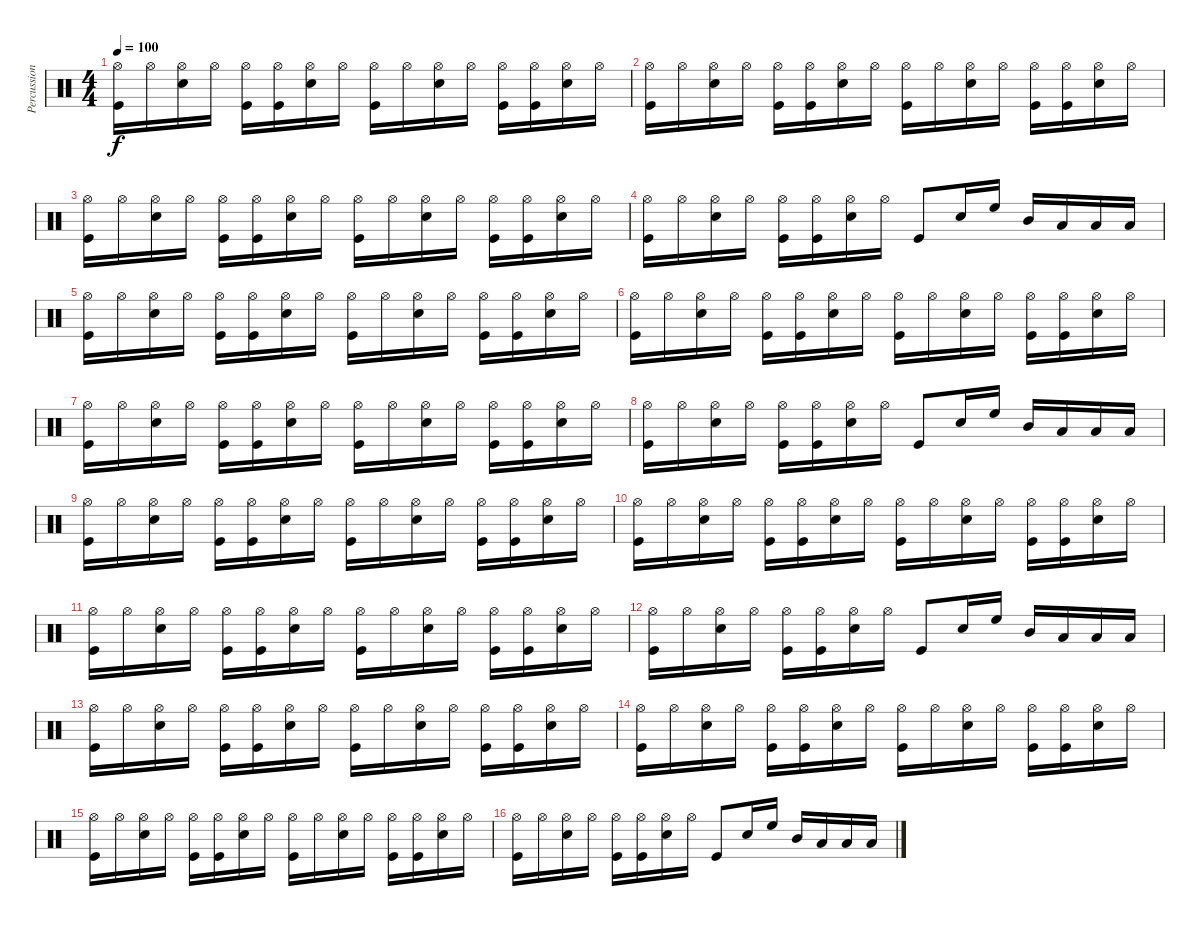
\track ("Percussions" "Percussion") {instrument percussion}
\staff {score}
\articulation defaults
\ts (4 4)
\tempo 100
\clef neutral
\ks c
("Hi-Hat (open)" "Kick (hit)").16{dy f} "Hi-Hat (open)".16 ("Hi-Hat (open)" "Snare (hit) 2").16 "Hi-Hat (open)".16 ("Hi-Hat (open)" "Kick (hit)").16 ("Hi-Hat (open)" "Kick (hit)").16 ("Hi-Hat (open)" "Snare (hit) 2").16 "Hi-Hat (open)".16 ("Hi-Hat (open)" "Kick (hit)").16 "Hi-Hat (open)".16 ("Hi-Hat (open)" "Snare (hit) 2").16 "Hi-Hat (open)".16 ("Hi-Hat (open)" "Kick (hit)").16 ("Hi-Hat (open)" "Kick (hit)").16 ("Hi-Hat (open)" "Snare (hit) 2").16 "Hi-Hat (open)".16 |
("Hi-Hat (open)" "Kick (hit)").16 "Hi-Hat (open)".16 ("Hi-Hat (open)" "Snare (hit) 2").16 "Hi-Hat (open)".16 ("Hi-Hat (open)" "Kick (hit)").16 ("Hi-Hat (open)" "Kick (hit)").16 ("Hi-Hat (open)" "Snare (hit) 2").16 "Hi-Hat (open)".16 ("Hi-Hat (open)" "Kick (hit)").16 "Hi-Hat (open)".16 ("Hi-Hat (open)" "Snare (hit) 2").16 "Hi-Hat (open)".16 ("Hi-Hat (open)" "Kick (hit)").16 ("Hi-Hat (open)" "Kick (hit)").16 ("Hi-Hat (open)" "Snare (hit) 2").16 "Hi-Hat (open)".16 |
("Hi-Hat (open)" "Kick (hit)").16 "Hi-Hat (open)".16 ("Hi-Hat (open)" "Snare (hit) 2").16 "Hi-Hat (open)".16 ("Hi-Hat (open)" "Kick (hit)").16 ("Hi-Hat (open)" "Kick (hit)").16 ("Hi-Hat (open)" "Snare (hit) 2").16 "Hi-Hat (open)".16 ("Hi-Hat (open)" "Kick (hit)").16 "Hi-Hat (open)".16 ("Hi-Hat (open)" "Snare (hit) 2").16 "Hi-Hat (open)".16 ("Hi-Hat (open)" "Kick (hit)").16 ("Hi-Hat (open)" "Kick (hit)").16 ("Hi-Hat (open)" "Snare (hit) 2").16 "Hi-Hat (open)".16 |
("Hi-Hat (open)" "Kick (hit)").16 "Hi-Hat (open)".16 ("Hi-Hat (open)" "Snare (hit) 2").16 "Hi-Hat (open)".16 ("Hi-Hat (open)" "Kick (hit)").16 ("Hi-Hat (open)" "Kick (hit)").16 ("Hi-Hat (open)" "Snare (hit) 2").16 "Hi-Hat (open)".16 "Kick (hit)".8 "Snare (hit) 2".16 "High Floor Tom (hit)".16 "Mid Tom (hit)".16 "Low Tom (hit)".16 "Low Floor Tom (hit)".16 "Low Tom (hit)".16 |
("Hi-Hat (open)" "Kick (hit)").16 "Hi-Hat (open)".16 ("Hi-Hat (open)" "Snare (hit) 2").16 "Hi-Hat (open)".16 ("Hi-Hat (open)" "Kick (hit)").16 ("Hi-Hat (open)" "Kick (hit)").16 ("Hi-Hat (open)" "Snare (hit) 2").16 "Hi-Hat (open)".16 ("Hi-Hat (open)" "Kick (hit)").16 "Hi-Hat (open)".16 ("Hi-Hat (open)" "Snare (hit) 2").16 "Hi-Hat (open)".16 ("Hi-Hat (open)" "Kick (hit)").16 ("Hi-Hat (open)" "Kick (hit)").16 ("Hi-Hat (open)" "Snare (hit) 2").16 "Hi-Hat (open)".16 |
("Hi-Hat (open)" "Kick (hit)").16 "Hi-Hat (open)".16 ("Hi-Hat (open)" "Snare (hit) 2").16 "Hi-Hat (open)".16 ("Hi-Hat (open)" "Kick (hit)").16 ("Hi-Hat (open)" "Kick (hit)").16 ("Hi-Hat (open)" "Snare (hit) 2").16 "Hi-Hat (open)".16 ("Hi-Hat (open)" "Kick (hit)").16 "Hi-Hat (open)".16 ("Hi-Hat (open)" "Snare (hit) 2").16 "Hi-Hat (open)".16 ("Hi-Hat (open)" "Kick (hit)").16 ("Hi-Hat (open)" "Kick (hit)").16 ("Hi-Hat (open)" "Snare (hit) 2").16 "Hi-Hat (open)".16 |
("Hi-Hat (open)" "Kick (hit)").16 "Hi-Hat (open)".16 ("Hi-Hat (open)" "Snare (hit) 2").16 "Hi-Hat (open)".16 ("Hi-Hat (open)" "Kick (hit)").16 ("Hi-Hat (open)" "Kick (hit)").16 ("Hi-Hat (open)" "Snare (hit) 2").16 "Hi-Hat (open)".16 ("Hi-Hat (open)" "Kick (hit)").16 "Hi-Hat (open)".16 ("Hi-Hat (open)" "Snare (hit) 2").16 "Hi-Hat (open)".16 ("Hi-Hat (open)" "Kick (hit)").16 ("Hi-Hat (open)" "Kick (hit)").16 ("Hi-Hat (open)" "Snare (hit) 2").16 "Hi-Hat (open)".16 |
("Hi-Hat (open)" "Kick (hit)").16 "Hi-Hat (open)".16 ("Hi-Hat (open)" "Snare (hit) 2").16 "Hi-Hat (open)".16 ("Hi-Hat (open)" "Kick (hit)").16 ("Hi-Hat (open)" "Kick (hit)").16 ("Hi-Hat (open)" "Snare (hit) 2").16 "Hi-Hat (open)".16 "Kick (hit)".8 "Snare (hit) 2".16 "High Floor Tom (hit)".16 "Mid Tom (hit)".16 "Low Tom (hit)".16 "Low Floor Tom (hit)".16 "Low Tom (hit)".16 |
("Hi-Hat (open)" "Kick (hit)").16 "Hi-Hat (open)".16 ("Hi-Hat (open)" "Snare (hit) 2").16 "Hi-Hat (open)".16 ("Hi-Hat (open)" "Kick (hit)").16 ("Hi-Hat (open)" "Kick (hit)").16 ("Hi-Hat (open)" "Snare (hit) 2").16 "Hi-Hat (open)".16 ("Hi-Hat (open)" "Kick (hit)").16 "Hi-Hat (open)".16 ("Hi-Hat (open)" "Snare (hit) 2").16 "Hi-Hat (open)".16 ("Hi-Hat (open)" "Kick (hit)").16 ("Hi-Hat (open)" "Kick (hit)").16 ("Hi-Hat (open)" "Snare (hit) 2").16 "Hi-Hat (open)".16 |
("Hi-Hat (open)" "Kick (hit)").16 "Hi-Hat (open)".16 ("Hi-Hat (open)" "Snare (hit) 2").16 "Hi-Hat (open)".16 ("Hi-Hat (open)" "Kick (hit)").16 ("Hi-Hat (open)" "Kick (hit)").16 ("Hi-Hat (open)" "Snare (hit) 2").16 "Hi-Hat (open)".16 ("Hi-Hat (open)" "Kick (hit)").16 "Hi-Hat (open)".16 ("Hi-Hat (open)" "Snare (hit) 2").16 "Hi-Hat (open)".16 ("Hi-Hat (open)" "Kick (hit)").16 ("Hi-Hat (open)" "Kick (hit)").16 ("Hi-Hat (open)" "Snare (hit) 2").16 "Hi-Hat (open)".16 |
("Hi-Hat (open)" "Kick (hit)").16 "Hi-Hat (open)".16 ("Hi-Hat (open)" "Snare (hit) 2").16 "Hi-Hat (open)".16 ("Hi-Hat (open)" "Kick (hit)").16 ("Hi-Hat (open)" "Kick (hit)").16 ("Hi-Hat (open)" "Snare (hit) 2").16 "Hi-Hat (open)".16 ("Hi-Hat (open)" "Kick (hit)").16 "Hi-Hat (open)".16 ("Hi-Hat (open)" "Snare (hit) 2").16 "Hi-Hat (open)".16 ("Hi-Hat (open)" "Kick (hit)").16 ("Hi-Hat (open)" "Kick (hit)").16 ("Hi-Hat (open)" "Snare (hit) 2").16 "Hi-Hat (open)".16 |
("Hi-Hat (open)" "Kick (hit)").16 "Hi-Hat (open)".16 ("Hi-Hat (open)" "Snare (hit) 2").16 "Hi-Hat (open)".16 ("Hi-Hat (open)" "Kick (hit)").16 ("Hi-Hat (open)" "Kick (hit)").16 ("Hi-Hat (open)" "Snare (hit) 2").16 "Hi-Hat (open)".16 "Kick (hit)".8 "Snare (hit) 2".16 "High Floor Tom (hit)".16 "Mid Tom (hit)".16 "Low Tom (hit)".16 "Low Floor Tom (hit)".16 "Low Tom (hit)".16 |
("Hi-Hat (open)" "Kick (hit)").16 "Hi-Hat (open)".16 ("Hi-Hat (open)" "Snare (hit) 2").16 "Hi-Hat (open)".16 ("Hi-Hat (open)" "Kick (hit)").16 ("Hi-Hat (open)" "Kick (hit)").16 ("Hi-Hat (open)" "Snare (hit) 2").16 "Hi-Hat (open)".16 ("Hi-Hat (open)" "Kick (hit)").16 "Hi-Hat (open)".16 ("Hi-Hat (open)" "Snare (hit) 2").16 "Hi-Hat (open)".16 ("Hi-Hat (open)" "Kick (hit)").16 ("Hi-Hat (open)" "Kick (hit)").16 ("Hi-Hat (open)" "Snare (hit) 2").16 "Hi-Hat (open)".16 |
("Hi-Hat (open)" "Kick (hit)").16 "Hi-Hat (open)".16 ("Hi-Hat (open)" "Snare (hit) 2").16 "Hi-Hat (open)".16 ("Hi-Hat (open)" "Kick (hit)").16 ("Hi-Hat (open)" "Kick (hit)").16 ("Hi-Hat (open)" "Snare (hit) 2").16 "Hi-Hat (open)".16 ("Hi-Hat (open)" "Kick (hit)").16 "Hi-Hat (open)".16 ("Hi-Hat (open)" "Snare (hit) 2").16 "Hi-Hat (open)".16 ("Hi-Hat (open)" "Kick (hit)").16 ("Hi-Hat (open)" "Kick (hit)").16 ("Hi-Hat (open)" "Snare (hit) 2").16 "Hi-Hat (open)".16 |
("Hi-Hat (open)" "Kick (hit)").16 "Hi-Hat (open)".16 ("Hi-Hat (open)" "Snare (hit) 2").16 "Hi-Hat (open)".16 ("Hi-Hat (open)" "Kick (hit)").16 ("Hi-Hat (open)" "Kick (hit)").16 ("Hi-Hat (open)" "Snare (hit) 2").16 "Hi-Hat (open)".16 ("Hi-Hat (open)" "Kick (hit)").16 "Hi-Hat (open)".16 ("Hi-Hat (open)" "Snare (hit) 2").16 "Hi-Hat (open)".16 ("Hi-Hat (open)" "Kick (hit)").16 ("Hi-Hat (open)" "Kick (hit)").16 ("Hi-Hat (open)" "Snare (hit) 2").16 "Hi-Hat (open)".16 |
("Hi-Hat (open)" "Kick (hit)").16 "Hi-Hat (open)".16 ("Hi-Hat (open)" "Snare (hit) 2").16 "Hi-Hat (open)".16 ("Hi-Hat (open)" "Kick (hit)").16 ("Hi-Hat (open)" "Kick (hit)").16 ("Hi-Hat (open)" "Snare (hit) 2").16 "Hi-Hat (open)".16 "Kick (hit)".8 "Snare (hit) 2".16 "High Floor Tom (hit)".16 "Mid Tom (hit)".16 "Low Tom (hit)".16 "Low Floor Tom (hit)".16 "Low Tom (hit)".16
